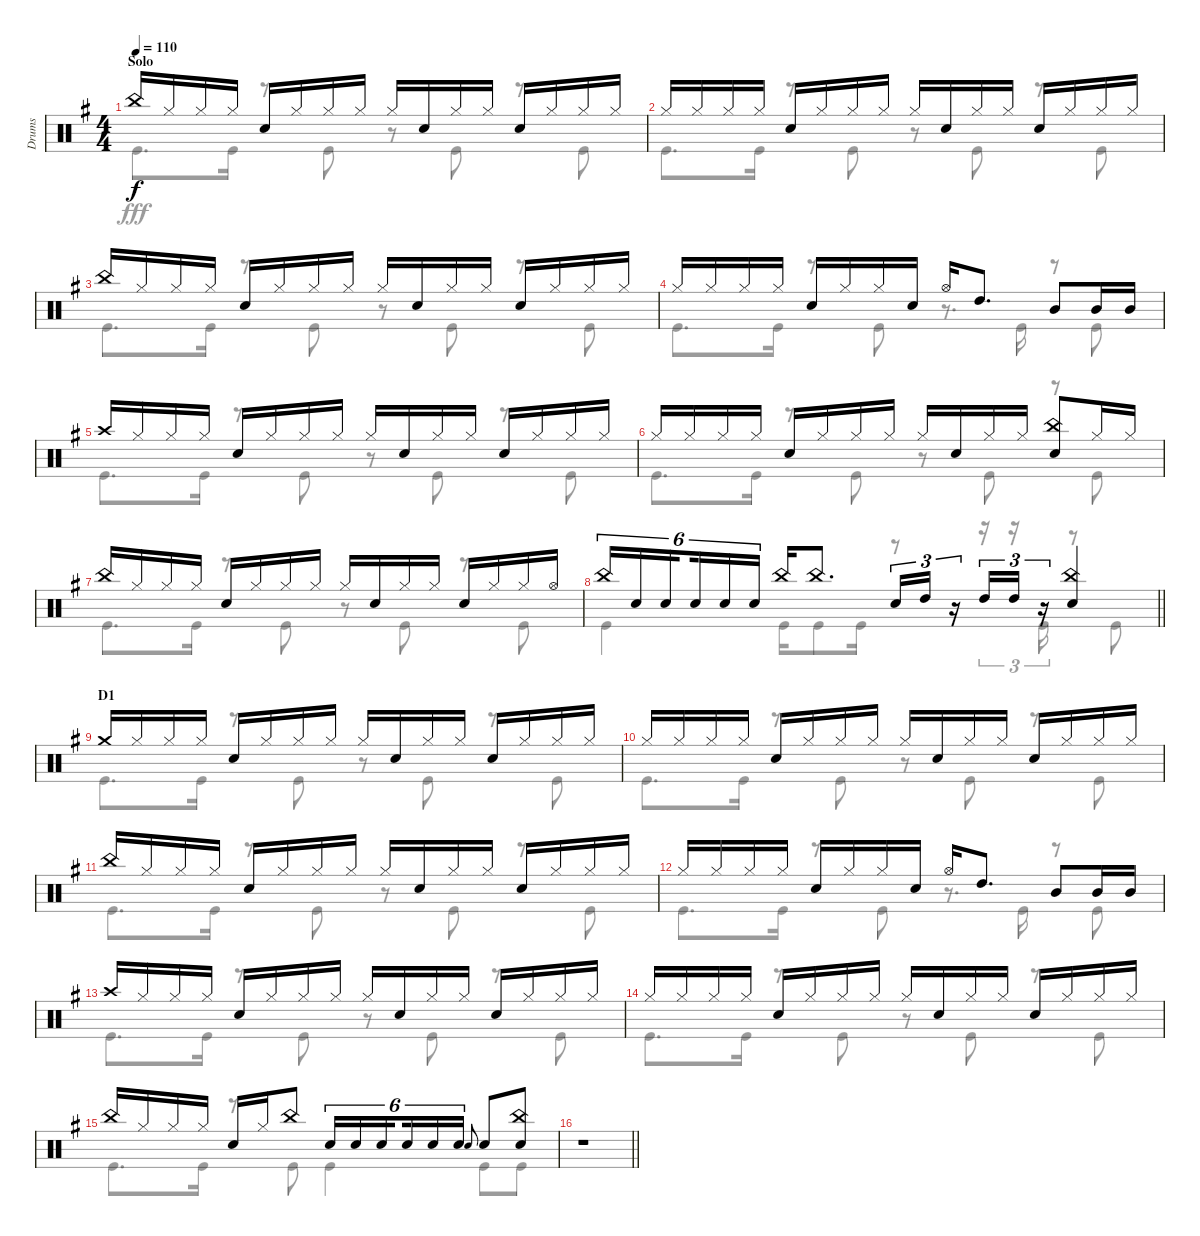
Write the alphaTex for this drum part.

\track ("Drums" "Drums") {instrument percussion}
\staff {score}
\articulation defaults
\voice
\ts (4 4)
\section ("" "Solo")
\tempo 110
\clef neutral
\ks g "China (hit)".16{dy f} "Hi-Hat (closed)".16 "Hi-Hat (closed)".16 "Hi-Hat (closed)".16 "Snare (hit) 2".16 "Hi-Hat (closed)".16 "Hi-Hat (closed)".16 "Hi-Hat (closed)".16 "Hi-Hat (closed)".16 "Snare (hit) 2".16 "Hi-Hat (closed)".16 "Hi-Hat (closed)".16 "Snare (hit) 2".16 "Hi-Hat (closed)".16 "Hi-Hat (closed)".16 "Hi-Hat (closed)".16
|
"Hi-Hat (closed)".16 "Hi-Hat (closed)".16 "Hi-Hat (closed)".16 "Hi-Hat (closed)".16 "Snare (hit) 2".16 "Hi-Hat (closed)".16 "Hi-Hat (closed)".16 "Hi-Hat (closed)".16 "Hi-Hat (closed)".16 "Snare (hit) 2".16 "Hi-Hat (closed)".16 "Hi-Hat (closed)".16 "Snare (hit) 2".16 "Hi-Hat (closed)".16 "Hi-Hat (closed)".16 "Hi-Hat (closed)".16 |
"China (hit)".16 "Hi-Hat (closed)".16 "Hi-Hat (closed)".16 "Hi-Hat (closed)".16 "Snare (hit) 2".16 "Hi-Hat (closed)".16 "Hi-Hat (closed)".16 "Hi-Hat (closed)".16 "Hi-Hat (closed)".16 "Snare (hit) 2".16 "Hi-Hat (closed)".16 "Hi-Hat (closed)".16 "Snare (hit) 2".16 "Hi-Hat (closed)".16 "Hi-Hat (closed)".16 "Hi-Hat (closed)".16 |
"Hi-Hat (closed)".16 "Hi-Hat (closed)".16 "Hi-Hat (closed)".16 "Hi-Hat (closed)".16 "Snare (hit) 2".16 "Hi-Hat (closed)".16 "Hi-Hat (closed)".16 "Snare (hit) 2".16 "Hi-Hat (open)".16 "High Tom (hit)".8{d} "Mid Tom (hit)".8 "Mid Tom (hit)".16 "Mid Tom (hit)".16 |
"Crash high (hit)".16 "Hi-Hat (closed)".16 "Hi-Hat (closed)".16 "Hi-Hat (closed)".16 "Snare (hit) 2".16 "Hi-Hat (closed)".16 "Hi-Hat (closed)".16 "Hi-Hat (closed)".16 "Hi-Hat (closed)".16 "Snare (hit) 2".16 "Hi-Hat (closed)".16 "Hi-Hat (closed)".16 "Snare (hit) 2".16 "Hi-Hat (closed)".16 "Hi-Hat (closed)".16 "Hi-Hat (closed)".16 |
"Hi-Hat (closed)".16 "Hi-Hat (closed)".16 "Hi-Hat (closed)".16 "Hi-Hat (closed)".16 "Snare (hit) 2".16 "Hi-Hat (closed)".16 "Hi-Hat (closed)".16 "Hi-Hat (closed)".16 "Hi-Hat (closed)".16 "Snare (hit) 2".16 "Hi-Hat (closed)".16 "Hi-Hat (closed)".16 ("China (hit)" "Snare (hit) 2").8 "Hi-Hat (closed)".16 "Hi-Hat (closed)".16 |
"China (hit)".16 "Hi-Hat (closed)".16 "Hi-Hat (closed)".16 "Hi-Hat (closed)".16 "Snare (hit) 2".16 "Hi-Hat (closed)".16 "Hi-Hat (closed)".16 "Hi-Hat (closed)".16 "Hi-Hat (closed)".16 "Snare (hit) 2".16 "Hi-Hat (closed)".16 "Hi-Hat (closed)".16 "Snare (hit) 2".16 "Hi-Hat (closed)".16 "Hi-Hat (closed)".16 "Hi-Hat (open)".16 |
\barLineRight lightlight "China (hit)".16{tu (6 4)} "Snare (hit) 2".16{tu (6 4)} "Snare (hit) 2".16{tu (6 4) beam splitsecondary} "Snare (hit) 2".16{tu (6 4)} "Snare (hit) 2".16{tu (6 4)} "Snare (hit) 2".16{tu (6 4)} "China (hit)".16 "China (hit)".8{d} "Snare (hit) 2".16{tu (3 2)} "High Tom (hit)".16{tu (3 2)}
r.16{tu (3 2)} "High Tom (hit)".16{tu (3 2)} "High Tom (hit)".16{tu (3 2)} r.16{tu (3 2)} ("China (hit)" "Snare (hit) 2").4 |
\section ("" "D1")
"Crash medium (hit)".16 "Hi-Hat (closed)".16 "Hi-Hat (closed)".16 "Hi-Hat (closed)".16 "Snare (hit) 2".16 "Hi-Hat (closed)".16 "Hi-Hat (closed)".16 "Hi-Hat (closed)".16 "Hi-Hat (closed)".16 "Snare (hit) 2".16 "Hi-Hat (closed)".16 "Hi-Hat (closed)".16 "Snare (hit) 2".16 "Hi-Hat (closed)".16 "Hi-Hat (closed)".16 "Hi-Hat (closed)".16 |
"Hi-Hat (closed)".16 "Hi-Hat (closed)".16 "Hi-Hat (closed)".16 "Hi-Hat (closed)".16 "Snare (hit) 2".16 "Hi-Hat (closed)".16 "Hi-Hat (closed)".16 "Hi-Hat (closed)".16 "Hi-Hat (closed)".16 "Snare (hit) 2".16 "Hi-Hat (closed)".16 "Hi-Hat (closed)".16 "Snare (hit) 2".16 "Hi-Hat (closed)".16 "Hi-Hat (closed)".16 "Hi-Hat (closed)".16 |
"China (hit)".16 "Hi-Hat (closed)".16 "Hi-Hat (closed)".16 "Hi-Hat (closed)".16 "Snare (hit) 2".16 "Hi-Hat (closed)".16 "Hi-Hat (closed)".16 "Hi-Hat (closed)".16 "Hi-Hat (closed)".16 "Snare (hit) 2".16 "Hi-Hat (closed)".16 "Hi-Hat (closed)".16 "Snare (hit) 2".16 "Hi-Hat (closed)".16 "Hi-Hat (closed)".16 "Hi-Hat (closed)".16 |
"Hi-Hat (closed)".16 "Hi-Hat (closed)".16 "Hi-Hat (closed)".16 "Hi-Hat (closed)".16 "Snare (hit) 2".16 "Hi-Hat (closed)".16 "Hi-Hat (closed)".16 "Snare (hit) 2".16 "Hi-Hat (open)".16 "High Tom (hit)".8{d} "Mid Tom (hit)".8 "Mid Tom (hit)".16 "Mid Tom (hit)".16 |
"Crash high (hit)".16 "Hi-Hat (closed)".16 "Hi-Hat (closed)".16 "Hi-Hat (closed)".16 "Snare (hit) 2".16 "Hi-Hat (closed)".16 "Hi-Hat (closed)".16 "Hi-Hat (closed)".16 "Hi-Hat (closed)".16 "Snare (hit) 2".16 "Hi-Hat (closed)".16 "Hi-Hat (closed)".16 "Snare (hit) 2".16 "Hi-Hat (closed)".16 "Hi-Hat (closed)".16 "Hi-Hat (closed)".16 |
"Hi-Hat (closed)".16 "Hi-Hat (closed)".16 "Hi-Hat (closed)".16 "Hi-Hat (closed)".16 "Snare (hit) 2".16 "Hi-Hat (closed)".16 "Hi-Hat (closed)".16 "Hi-Hat (closed)".16 "Hi-Hat (closed)".16 "Snare (hit) 2".16 "Hi-Hat (closed)".16 "Hi-Hat (closed)".16 "Snare (hit) 2".16 "Hi-Hat (closed)".16 "Hi-Hat (closed)".16 "Hi-Hat (closed)".16 |
"China (hit)".16 "Hi-Hat (closed)".16 "Hi-Hat (closed)".16 "Hi-Hat (closed)".16 "Snare (hit) 2".16 "Hi-Hat (closed)".16 "China (hit)".8 "Snare (hit) 2".16{tu (6 4)} "Snare (hit) 2".16{tu (6 4)} "Snare (hit) 2".16{tu (6 4) beam splitsecondary} "Snare (hit) 2".16{tu (6 4)} "Snare (hit) 2".16{tu (6 4)} "Snare (hit) 2".16{tu (6 4)} "Snare (hit) 2".8{gr onbeat} "Snare (hit) 2".8 ("China (hit)" "Snare (hit) 2").8 |
\barLineRight lightlight
r.1
\voice
\clef neutral
\ottava regular
\simile none
\ks g "Kick (hit)".8{d dy fff} "Kick (hit)".16
r.8 "Kick (hit)".8 r.8 "Kick (hit)".8 r.8 "Kick (hit)".8 |
"Kick (hit)".8{d} "Kick (hit)".16 r.8 "Kick (hit)".8 r.8 "Kick (hit)".8 r.8 "Kick (hit)".8 |
"Kick (hit)".8{d} "Kick (hit)".16 r.8 "Kick (hit)".8 r.8 "Kick (hit)".8 r.8 "Kick (hit)".8 |
"Kick (hit)".8{d} "Kick (hit)".16 r.8 "Kick (hit)".8 r.8{d} "Kick (hit)".16 r.8 "Kick (hit)".8 |
"Kick (hit)".8{d} "Kick (hit)".16 r.8 "Kick (hit)".8 r.8 "Kick (hit)".8 r.8 "Kick (hit)".8 |
"Kick (hit)".8{d} "Kick (hit)".16 r.8 "Kick (hit)".8 r.8 "Kick (hit)".8 r.8 "Kick (hit)".8 |
"Kick (hit)".8{d} "Kick (hit)".16 r.8 "Kick (hit)".8 r.8 "Kick (hit)".8 r.8 "Kick (hit)".8 |
\barLineRight lightlight "Kick (hit)".4 "Kick (hit)".16 "Kick (hit)".8 "Kick (hit)".16
r.8 r.16{tu (3 2)} r.16{tu (3 2)} "Kick (hit)".16{tu (3 2)} r.8 "Kick (hit)".8 |
"Kick (hit)".8{d} "Kick (hit)".16 r.8 "Kick (hit)".8 r.8 "Kick (hit)".8 r.8 "Kick (hit)".8 |
"Kick (hit)".8{d} "Kick (hit)".16 r.8 "Kick (hit)".8 r.8 "Kick (hit)".8 r.8 "Kick (hit)".8 |
"Kick (hit)".8{d} "Kick (hit)".16 r.8 "Kick (hit)".8 r.8 "Kick (hit)".8 r.8 "Kick (hit)".8 |
"Kick (hit)".8{d} "Kick (hit)".16 r.8 "Kick (hit)".8 r.8{d} "Kick (hit)".16 r.8 "Kick (hit)".8 |
"Kick (hit)".8{d} "Kick (hit)".16 r.8 "Kick (hit)".8 r.8 "Kick (hit)".8 r.8 "Kick (hit)".8 |
"Kick (hit)".8{d} "Kick (hit)".16 r.8 "Kick (hit)".8 r.8 "Kick (hit)".8 r.8 "Kick (hit)".8 |
"Kick (hit)".8{d} "Kick (hit)".16 r.8 "Kick (hit)".8 "Kick (hit)".4 "Kick (hit)".8 "Kick (hit)".8 |
\barLineRight lightlight
r.1
